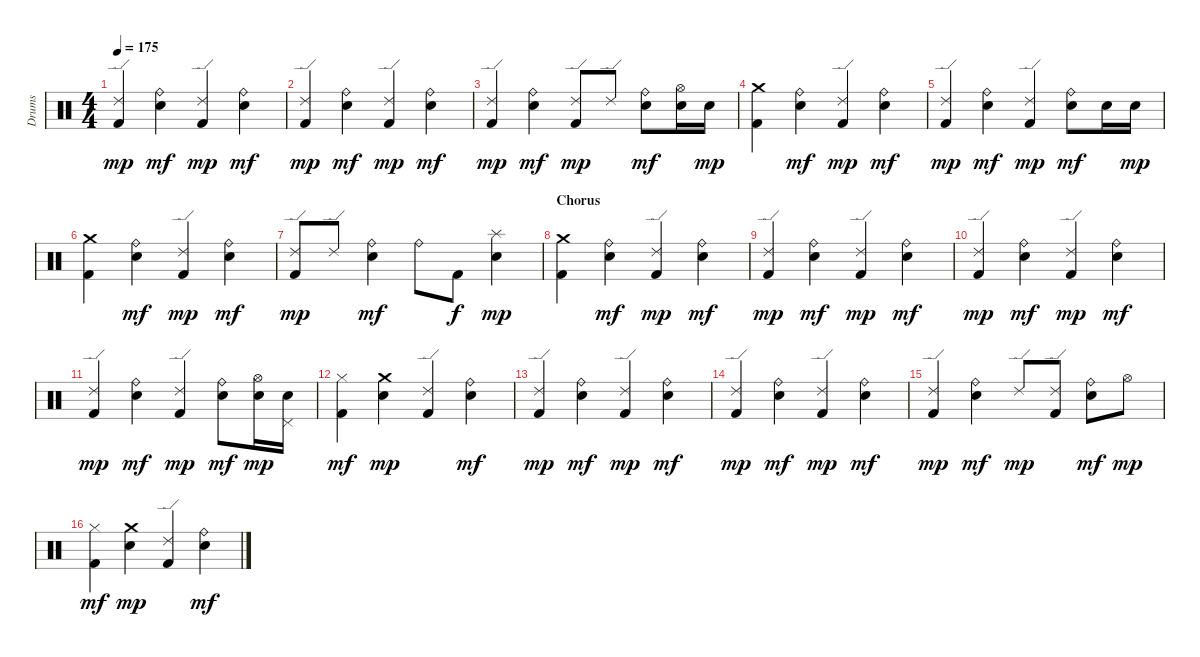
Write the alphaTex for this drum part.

\track ("Drums" "Drums") {instrument percussion}
\staff {score}
\articulation defaults
\ts (4 4)
\tempo 175
\clef neutral
\ks c
("Ride (edge) 2" "Kick (hit) 2").4{dy mp} ("Ride (bell)" "Electric Snare (hit)").4{dy mf} ("Ride (edge) 2" "Kick (hit) 2").4{dy mp} ("Ride (bell)" "Electric Snare (hit)").4{dy mf} |
("Ride (edge) 2" "Kick (hit) 2").4{dy mp} ("Ride (bell)" "Electric Snare (hit)").4{dy mf} ("Ride (edge) 2" "Kick (hit) 2").4{dy mp} ("Ride (bell)" "Electric Snare (hit)").4{dy mf} |
("Ride (edge) 2" "Kick (hit) 2").4{dy mp} ("Ride (bell)" "Electric Snare (hit)").4{dy mf} ("Ride (edge) 2" "Kick (hit) 2").8{dy mp} "Ride (edge) 2".8 ("Ride (bell)" "Electric Snare (hit)").8{dy mf} ("Hi-Hat (open)" "Electric Snare (hit)").16 "Electric Snare (hit)".16{dy mp} |
("Crash medium (hit)" "Kick (hit) 2").4 ("Ride (bell)" "Electric Snare (hit)").4{dy mf} ("Ride (edge) 2" "Kick (hit) 2").4{dy mp} ("Ride (bell)" "Electric Snare (hit)").4{dy mf} |
("Ride (edge) 2" "Kick (hit) 2").4{dy mp} ("Ride (bell)" "Electric Snare (hit)").4{dy mf} ("Ride (edge) 2" "Kick (hit) 2").4{dy mp} ("Ride (bell)" "Electric Snare (hit)").8{dy mf} "Electric Snare (hit)".16 "Electric Snare (hit)".16{dy mp} |
("Crash medium (hit)" "Kick (hit) 2").4 ("Ride (bell)" "Electric Snare (hit)").4{dy mf} ("Ride (edge) 2" "Kick (hit) 2").4{dy mp} ("Ride (bell)" "Electric Snare (hit)").4{dy mf} |
("Ride (edge) 2" "Kick (hit) 2").8{dy mp} "Ride (edge) 2".8 ("Ride (bell)" "Electric Snare (hit)").4{dy mf} "Ride (bell)".8 "Kick (hit) 2".8{dy f} ("Splash (hit)" "Electric Snare (hit)").4{dy mp} |
\section ("" "Chorus")
("Crash medium (hit)" "Kick (hit) 2").4 ("Ride (bell)" "Electric Snare (hit)").4{dy mf} ("Ride (edge) 2" "Kick (hit) 2").4{dy mp} ("Ride (bell)" "Electric Snare (hit)").4{dy mf} |
("Ride (edge) 2" "Kick (hit) 2").4{dy mp} ("Ride (bell)" "Electric Snare (hit)").4{dy mf} ("Ride (edge) 2" "Kick (hit) 2").4{dy mp} ("Ride (bell)" "Electric Snare (hit)").4{dy mf} |
("Ride (edge) 2" "Kick (hit) 2").4{dy mp} ("Ride (bell)" "Electric Snare (hit)").4{dy mf} ("Ride (edge) 2" "Kick (hit) 2").4{dy mp} ("Ride (bell)" "Electric Snare (hit)").4{dy mf} |
("Ride (edge) 2" "Kick (hit) 2").4{dy mp} ("Ride (bell)" "Electric Snare (hit)").4{dy mf} ("Ride (edge) 2" "Kick (hit) 2").4{dy mp} ("Ride (bell)" "Electric Snare (hit)").8{dy mf} ("Hi-Hat (open)" "Electric Snare (hit)").16{dy mp} ("Pedal Hi-Hat (hit)" "Electric Snare (hit)").16 |
("Hi-Hat (closed)" "Kick (hit) 2").4{dy mf} ("Crash medium (hit)" "Electric Snare (hit)").4{dy mp} ("Ride (edge) 2" "Kick (hit) 2").4 ("Ride (bell)" "Electric Snare (hit)").4{dy mf} |
("Ride (edge) 2" "Kick (hit) 2").4{dy mp} ("Ride (bell)" "Electric Snare (hit)").4{dy mf} ("Ride (edge) 2" "Kick (hit) 2").4{dy mp} ("Ride (bell)" "Electric Snare (hit)").4{dy mf} |
("Ride (edge) 2" "Kick (hit) 2").4{dy mp} ("Ride (bell)" "Electric Snare (hit)").4{dy mf} ("Ride (edge) 2" "Kick (hit) 2").4{dy mp} ("Ride (bell)" "Electric Snare (hit)").4{dy mf} |
("Ride (edge) 2" "Kick (hit) 2").4{dy mp} ("Ride (bell)" "Electric Snare (hit)").4{dy mf} "Ride (edge) 2".8{dy mp} ("Ride (edge) 2" "Kick (hit) 2").8 ("Ride (bell)" "Electric Snare (hit)").8{dy mf} "Hi-Hat (open)".8{dy mp} |
("Hi-Hat (closed)" "Kick (hit) 2").4{dy mf} ("Crash medium (hit)" "Electric Snare (hit)").4{dy mp} ("Ride (edge) 2" "Kick (hit) 2").4 ("Ride (bell)" "Electric Snare (hit)").4{dy mf}
